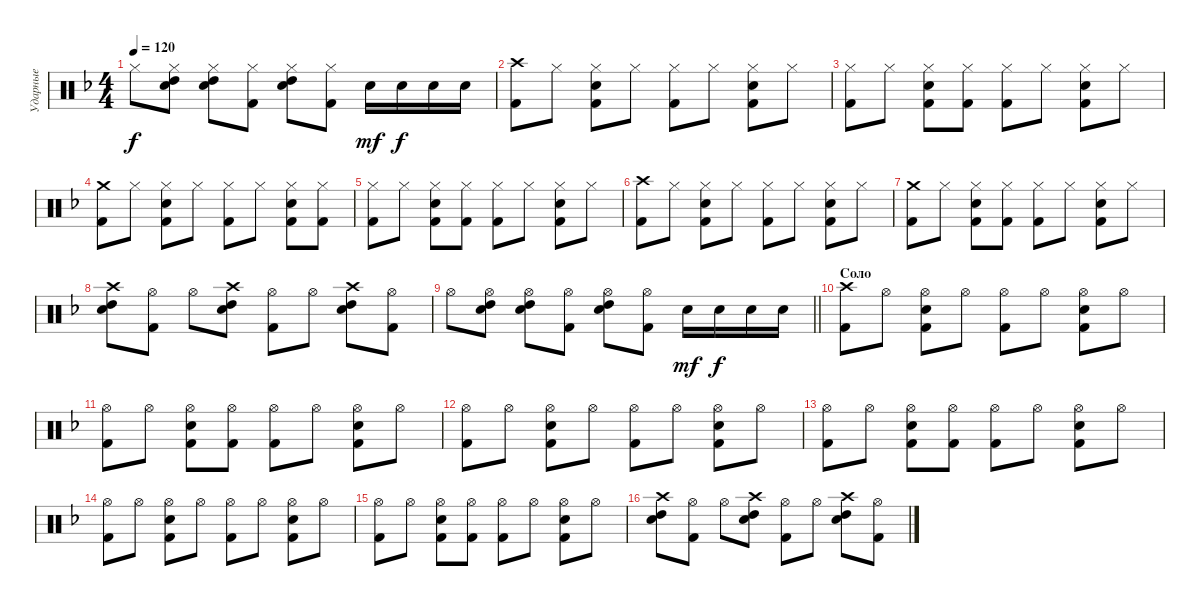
\track ("Ударные" "Ударные") {instrument percussion}
\staff {score}
\articulation defaults
\ts (4 4)
\tempo 120
\clef neutral
\ks f "Hi-Hat (closed)".8{dy f}
("High Tom (hit)" "Hi-Hat (closed)" "Electric Snare (hit)").8 ("High Tom (hit)" "Hi-Hat (closed)" "Electric Snare (hit)").8 ("Kick (hit) 2" "Hi-Hat (closed)").8 ("High Tom (hit)" "Hi-Hat (closed)" "Electric Snare (hit)").8 ("Kick (hit) 2" "Hi-Hat (closed)").8 "Electric Snare (hit)".16{dy mf} "Electric Snare (hit)".16{dy f} "Electric Snare (hit)".16 "Electric Snare (hit)".16 |
("Kick (hit) 2" "Crash high (hit)").8 "Hi-Hat (closed)".8 ("Kick (hit) 2" "Electric Snare (hit)" "Hi-Hat (closed)").8 "Hi-Hat (closed)".8 ("Kick (hit) 2" "Hi-Hat (closed)").8 "Hi-Hat (closed)".8 ("Kick (hit) 2" "Electric Snare (hit)" "Hi-Hat (closed)").8 "Hi-Hat (closed)".8 |
("Kick (hit) 2" "Hi-Hat (closed)").8 "Hi-Hat (closed)".8 ("Kick (hit) 2" "Electric Snare (hit)" "Hi-Hat (closed)").8 ("Kick (hit) 2" "Hi-Hat (closed)").8 ("Kick (hit) 2" "Hi-Hat (closed)").8 "Hi-Hat (closed)".8 ("Kick (hit) 2" "Electric Snare (hit)" "Hi-Hat (closed)").8 "Hi-Hat (closed)".8 |
("Kick (hit) 2" "Crash medium (hit)").8 "Hi-Hat (closed)".8 ("Kick (hit) 2" "Electric Snare (hit)" "Hi-Hat (closed)").8 "Hi-Hat (closed)".8 ("Kick (hit) 2" "Hi-Hat (closed)").8 "Hi-Hat (closed)".8 ("Kick (hit) 2" "Electric Snare (hit)" "Hi-Hat (closed)").8 ("Kick (hit) 2" "Hi-Hat (closed)").8 |
("Kick (hit) 2" "Hi-Hat (closed)").8 "Hi-Hat (closed)".8 ("Kick (hit) 2" "Electric Snare (hit)" "Hi-Hat (closed)").8 ("Kick (hit) 2" "Hi-Hat (closed)").8 ("Kick (hit) 2" "Hi-Hat (closed)").8 "Hi-Hat (closed)".8 ("Kick (hit) 2" "Electric Snare (hit)" "Hi-Hat (closed)").8 "Hi-Hat (closed)".8 |
("Kick (hit) 2" "Crash high (hit)").8 "Hi-Hat (closed)".8 ("Kick (hit) 2" "Electric Snare (hit)" "Hi-Hat (closed)").8 "Hi-Hat (closed)".8 ("Kick (hit) 2" "Hi-Hat (closed)").8 "Hi-Hat (closed)".8 ("Kick (hit) 2" "Electric Snare (hit)" "Hi-Hat (closed)").8 "Hi-Hat (closed)".8 |
("Kick (hit) 2" "Crash medium (hit)").8 "Hi-Hat (closed)".8 ("Kick (hit) 2" "Electric Snare (hit)" "Hi-Hat (closed)").8 ("Kick (hit) 2" "Hi-Hat (closed)").8 ("Kick (hit) 2" "Hi-Hat (closed)").8 "Hi-Hat (closed)".8 ("Kick (hit) 2" "Electric Snare (hit)" "Hi-Hat (closed)").8 "Hi-Hat (closed)".8 |
("Electric Snare (hit)" "High Tom (hit)" "Crash high (hit)").8 ("Kick (hit) 2" "Hi-Hat (open)").8 "Hi-Hat (open)".8 ("Electric Snare (hit)" "High Tom (hit)" "Crash high (hit)").8 ("Kick (hit) 2" "Hi-Hat (open)").8 "Hi-Hat (open)".8 ("Electric Snare (hit)" "High Tom (hit)" "Crash high (hit)").8 ("Kick (hit) 2" "Hi-Hat (open)").8 |
\barLineRight lightlight "Hi-Hat (open)".8
("Electric Snare (hit)" "High Tom (hit)" "Hi-Hat (open)").8 ("Electric Snare (hit)" "High Tom (hit)" "Hi-Hat (open)").8 ("Kick (hit) 2" "Hi-Hat (open)").8 ("Electric Snare (hit)" "High Tom (hit)" "Hi-Hat (open)").8 ("Kick (hit) 2" "Hi-Hat (open)").8 "Electric Snare (hit)".16{dy mf} "Electric Snare (hit)".16{dy f} "Electric Snare (hit)".16 "Electric Snare (hit)".16 |
\section ("" "Соло")
("Kick (hit) 2" "Crash high (hit)").8 "Hi-Hat (open)".8 ("Kick (hit) 2" "Electric Snare (hit)" "Hi-Hat (open)").8 "Hi-Hat (open)".8 ("Kick (hit) 2" "Hi-Hat (open)").8 "Hi-Hat (open)".8 ("Kick (hit) 2" "Electric Snare (hit)" "Hi-Hat (open)").8 "Hi-Hat (open)".8 |
("Kick (hit) 2" "Hi-Hat (open)").8 "Hi-Hat (open)".8 ("Kick (hit) 2" "Electric Snare (hit)" "Hi-Hat (open)").8 ("Kick (hit) 2" "Hi-Hat (open)").8 ("Kick (hit) 2" "Hi-Hat (open)").8 "Hi-Hat (open)".8 ("Kick (hit) 2" "Electric Snare (hit)" "Hi-Hat (open)").8 "Hi-Hat (open)".8 |
("Kick (hit) 2" "Hi-Hat (open)").8 "Hi-Hat (open)".8 ("Kick (hit) 2" "Electric Snare (hit)" "Hi-Hat (open)").8 "Hi-Hat (open)".8 ("Kick (hit) 2" "Hi-Hat (open)").8 "Hi-Hat (open)".8 ("Kick (hit) 2" "Electric Snare (hit)" "Hi-Hat (open)").8 "Hi-Hat (open)".8 |
("Kick (hit) 2" "Hi-Hat (open)").8 "Hi-Hat (open)".8 ("Kick (hit) 2" "Electric Snare (hit)" "Hi-Hat (open)").8 ("Kick (hit) 2" "Hi-Hat (open)").8 ("Kick (hit) 2" "Hi-Hat (open)").8 "Hi-Hat (open)".8 ("Kick (hit) 2" "Electric Snare (hit)" "Hi-Hat (open)").8 "Hi-Hat (open)".8 |
("Kick (hit) 2" "Hi-Hat (open)").8 "Hi-Hat (open)".8 ("Kick (hit) 2" "Electric Snare (hit)" "Hi-Hat (open)").8 "Hi-Hat (open)".8 ("Kick (hit) 2" "Hi-Hat (open)").8 "Hi-Hat (open)".8 ("Kick (hit) 2" "Electric Snare (hit)" "Hi-Hat (open)").8 "Hi-Hat (open)".8 |
("Kick (hit) 2" "Hi-Hat (open)").8 "Hi-Hat (open)".8 ("Kick (hit) 2" "Electric Snare (hit)" "Hi-Hat (open)").8 ("Kick (hit) 2" "Hi-Hat (open)").8 ("Kick (hit) 2" "Hi-Hat (open)").8 "Hi-Hat (open)".8 ("Kick (hit) 2" "Electric Snare (hit)" "Hi-Hat (open)").8 "Hi-Hat (open)".8 |
("Electric Snare (hit)" "High Tom (hit)" "Crash high (hit)").8 ("Kick (hit) 2" "Hi-Hat (open)").8 "Hi-Hat (open)".8 ("Electric Snare (hit)" "High Tom (hit)" "Crash high (hit)").8 ("Kick (hit) 2" "Hi-Hat (open)").8 "Hi-Hat (open)".8 ("Electric Snare (hit)" "High Tom (hit)" "Crash high (hit)").8 ("Kick (hit) 2" "Hi-Hat (open)").8
